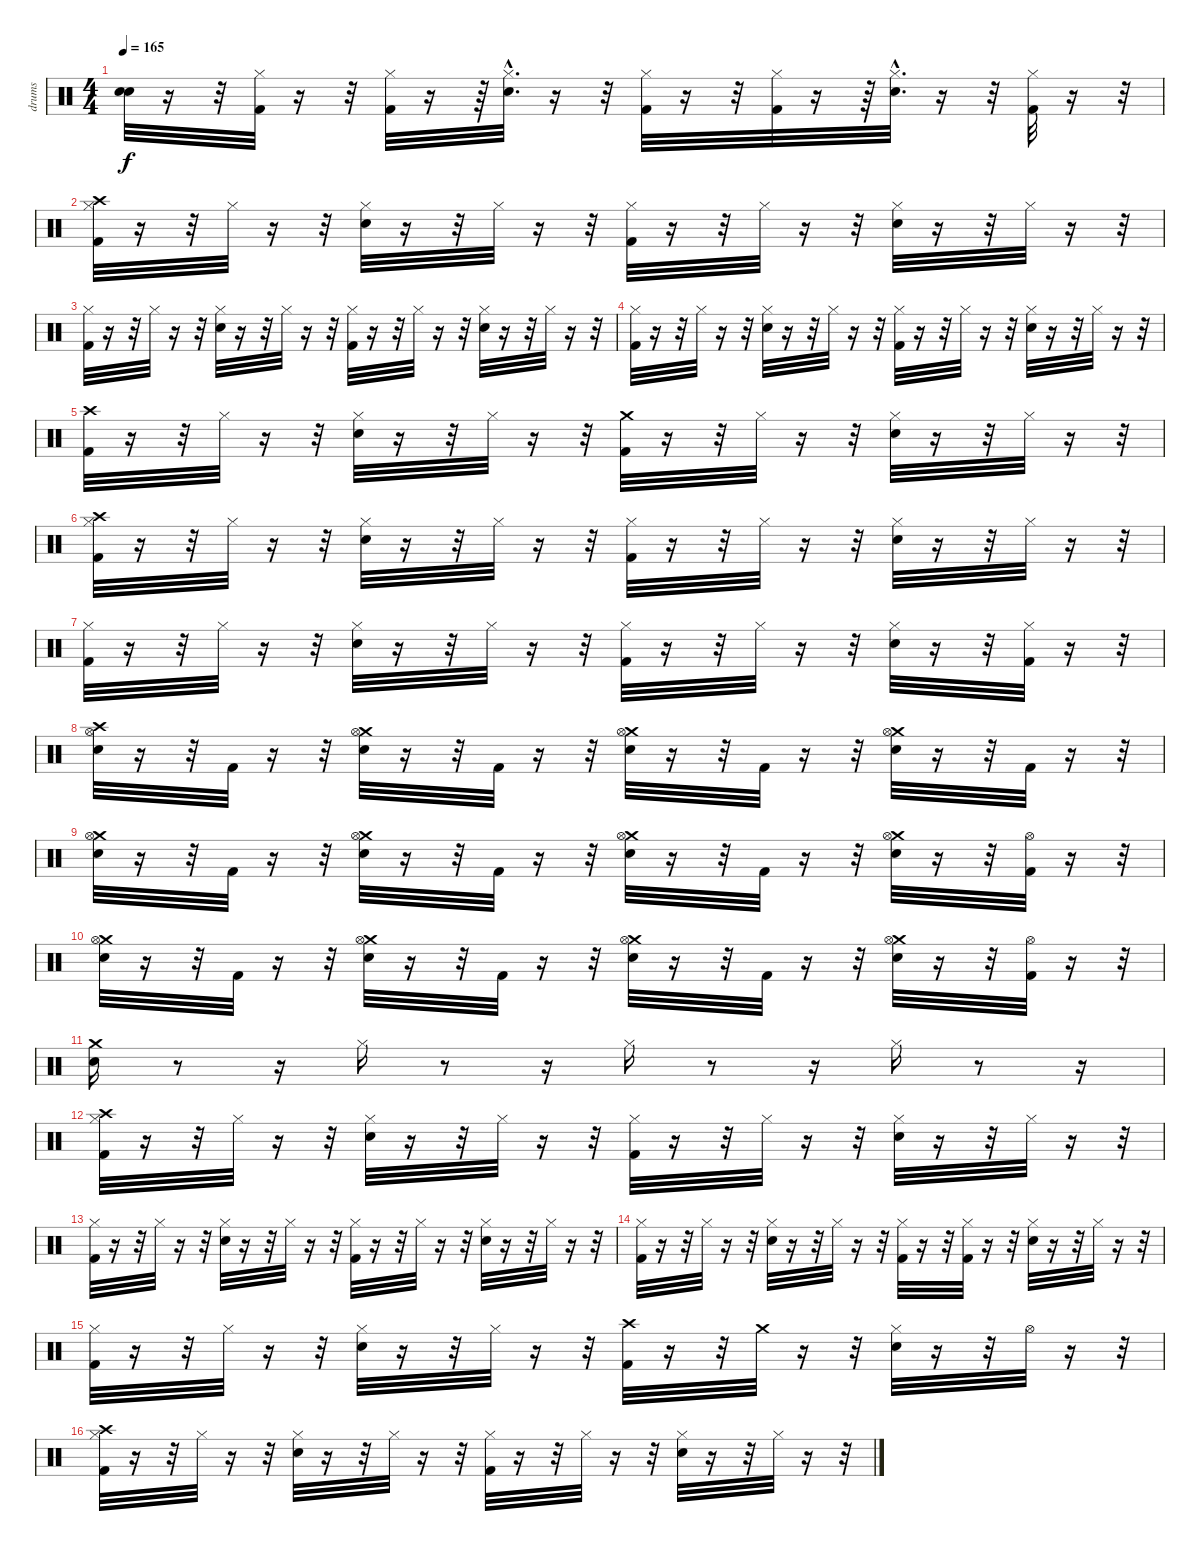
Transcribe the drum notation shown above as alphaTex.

\track ("drums" "drums") {instrument percussion}
\staff {score}
\articulation defaults
\ts (4 4)
\tempo 165
\clef neutral
\ks c
("Snare (hit)"{t} "Snare (hit)"{t}).32{dy f} r.16 r.32 ("Kick (hit) 2" "Hi-Hat (closed)").32 r.16 r.32 ("Hi-Hat (closed)" "Kick (hit) 2").32 r.16 r.64 ("Electric Snare (hit)"{hac} "Hi-Hat (closed)"{hac}).32{d} r.16 r.32 ("Hi-Hat (closed)" "Kick (hit) 2").32 r.16 r.32 ("Hi-Hat (closed)" "Kick (hit) 2").32 r.16 r.64 ("Hi-Hat (closed)"{hac} "Electric Snare (hit)"{hac}).32{d} r.16 r.32 ("Kick (hit) 2" "Hi-Hat (closed)").32 r.16 r.32 |
("Kick (hit) 2" "Hi-Hat (closed)" "Crash high (hit)").32 r.16 r.32 "Hi-Hat (closed)".32 r.16 r.32 ("Hi-Hat (closed)" "Electric Snare (hit)").32 r.16 r.32 "Hi-Hat (closed)".32 r.16 r.32 ("Hi-Hat (closed)" "Kick (hit) 2").32 r.16 r.32 "Hi-Hat (closed)".32 r.16 r.32 ("Hi-Hat (closed)" "Electric Snare (hit)").32 r.16 r.32 "Hi-Hat (closed)".32 r.16 r.32 |
("Hi-Hat (closed)" "Kick (hit) 2").32 r.16 r.32 "Hi-Hat (closed)".32 r.16 r.32 ("Hi-Hat (closed)" "Electric Snare (hit)").32 r.16 r.32 "Hi-Hat (closed)".32 r.16 r.32 ("Hi-Hat (closed)" "Kick (hit) 2").32 r.16 r.32 "Hi-Hat (closed)".32 r.16 r.32 ("Hi-Hat (closed)" "Electric Snare (hit)").32 r.16 r.32 "Hi-Hat (closed)".32 r.16 r.32 |
("Hi-Hat (closed)" "Kick (hit) 2").32 r.16 r.32 "Hi-Hat (closed)".32 r.16 r.32 ("Hi-Hat (closed)" "Electric Snare (hit)").32 r.16 r.32 "Hi-Hat (closed)".32 r.16 r.32 ("Hi-Hat (closed)" "Kick (hit) 2").32 r.16 r.32 "Hi-Hat (closed)".32 r.16 r.32 ("Hi-Hat (closed)" "Electric Snare (hit)").32 r.16 r.32 "Hi-Hat (closed)".32 r.16 r.32 |
("Crash high (hit)" "Kick (hit) 2").32 r.16 r.32 "Hi-Hat (closed)".32 r.16 r.32 ("Hi-Hat (closed)" "Electric Snare (hit)").32 r.16 r.32 "Hi-Hat (closed)".32 r.16 r.32 ("Crash medium (hit)" "Kick (hit) 2").32 r.16 r.32 "Hi-Hat (closed)".32 r.16 r.32 ("Hi-Hat (closed)" "Electric Snare (hit)").32 r.16 r.32 "Hi-Hat (closed)".32 r.16 r.32 |
("Crash high (hit)" "Hi-Hat (closed)" "Kick (hit) 2").32 r.16 r.32 "Hi-Hat (closed)".32 r.16 r.32 ("Hi-Hat (closed)" "Electric Snare (hit)").32 r.16 r.32 "Hi-Hat (closed)".32 r.16 r.32 ("Hi-Hat (closed)" "Kick (hit) 2").32 r.16 r.32 "Hi-Hat (closed)".32 r.16 r.32 ("Hi-Hat (closed)" "Electric Snare (hit)").32 r.16 r.32 "Hi-Hat (closed)".32 r.16 r.32 |
("Hi-Hat (closed)" "Kick (hit) 2").32 r.16 r.32 "Hi-Hat (closed)".32 r.16 r.32 ("Hi-Hat (closed)" "Electric Snare (hit)").32 r.16 r.32 "Hi-Hat (closed)".32 r.16 r.32 ("Hi-Hat (closed)" "Kick (hit) 2").32 r.16 r.32 "Hi-Hat (closed)".32 r.16 r.32 ("Hi-Hat (closed)" "Electric Snare (hit)").32 r.16 r.32 ("Kick (hit) 2" "Hi-Hat (closed)").32 r.16 r.32 |
("Electric Snare (hit)" "Crash high (hit)" "Hi-Hat (open)").32 r.16 r.32 "Kick (hit) 2".32 r.16 r.32 ("Crash medium (hit)" "Hi-Hat (open)" "Electric Snare (hit)").32 r.16 r.32 "Kick (hit) 2".32 r.16 r.32 ("Crash medium (hit)" "Electric Snare (hit)" "Hi-Hat (open)").32 r.16 r.32 "Kick (hit) 2".32 r.16 r.32 ("Electric Snare (hit)" "Crash medium (hit)" "Hi-Hat (open)").32 r.16 r.32 "Kick (hit) 2".32 r.16 r.32 |
("Crash medium (hit)" "Electric Snare (hit)" "Hi-Hat (open)").32 r.16 r.32 "Kick (hit) 2".32 r.16 r.32 ("Crash medium (hit)" "Hi-Hat (open)" "Electric Snare (hit)").32 r.16 r.32 "Kick (hit) 2".32 r.16 r.32 ("Crash medium (hit)" "Electric Snare (hit)" "Hi-Hat (open)").32 r.16 r.32 "Kick (hit) 2".32 r.16 r.32 ("Crash medium (hit)" "Hi-Hat (open)" "Electric Snare (hit)").32 r.16 r.32 ("Kick (hit) 2" "Hi-Hat (open)").32 r.16 r.32 |
("Crash medium (hit)" "Electric Snare (hit)" "Hi-Hat (open)").32 r.16 r.32 "Kick (hit) 2".32 r.16 r.32 ("Crash medium (hit)" "Hi-Hat (open)" "Electric Snare (hit)").32 r.16 r.32 "Kick (hit) 2".32 r.16 r.32 ("Crash medium (hit)" "Electric Snare (hit)" "Hi-Hat (open)").32 r.16 r.32 "Kick (hit) 2".32 r.16 r.32 ("Crash medium (hit)" "Hi-Hat (open)" "Electric Snare (hit)").32 r.16 r.32 ("Kick (hit) 2" "Hi-Hat (open)").32 r.16 r.32 |
("Crash medium (hit)" "Snare (hit) 2").16 r.8 r.16 "Hi-Hat (closed)".16 r.8 r.16 "Hi-Hat (closed)".16 r.8 r.16 "Hi-Hat (closed)".16 r.8 r.16 |
("Kick (hit) 2" "Hi-Hat (closed)" "Crash high (hit)").32 r.16 r.32 "Hi-Hat (closed)".32 r.16 r.32 ("Hi-Hat (closed)" "Electric Snare (hit)").32 r.16 r.32 "Hi-Hat (closed)".32 r.16 r.32 ("Hi-Hat (closed)" "Kick (hit) 2").32 r.16 r.32 "Hi-Hat (closed)".32 r.16 r.32 ("Hi-Hat (closed)" "Electric Snare (hit)").32 r.16 r.32 "Hi-Hat (closed)".32 r.16 r.32 |
("Hi-Hat (closed)" "Kick (hit) 2").32 r.16 r.32 "Hi-Hat (closed)".32 r.16 r.32 ("Hi-Hat (closed)" "Electric Snare (hit)").32 r.16 r.32 "Hi-Hat (closed)".32 r.16 r.32 ("Hi-Hat (closed)" "Kick (hit) 2").32 r.16 r.32 "Hi-Hat (closed)".32 r.16 r.32 ("Hi-Hat (closed)" "Electric Snare (hit)").32 r.16 r.32 "Hi-Hat (closed)".32 r.16 r.32 |
("Hi-Hat (closed)" "Kick (hit) 2").32 r.16 r.32 "Hi-Hat (closed)".32 r.16 r.32 ("Hi-Hat (closed)" "Electric Snare (hit)").32 r.16 r.32 "Hi-Hat (closed)".32 r.16 r.32 ("Hi-Hat (closed)" "Kick (hit) 2").32 r.16 r.32 ("Hi-Hat (closed)" "Kick (hit) 2").32 r.16 r.32 ("Hi-Hat (closed)" "Electric Snare (hit)").32 r.16 r.32 "Hi-Hat (closed)".32 r.16 r.32 |
("Hi-Hat (closed)" "Kick (hit) 2").32 r.16 r.32 "Hi-Hat (closed)".32 r.16 r.32 ("Hi-Hat (closed)" "Electric Snare (hit)").32 r.16 r.32 "Hi-Hat (closed)".32 r.16 r.32 ("Crash high (hit)" "Kick (hit) 2").32 r.16 r.32 "Crash medium (hit)".32 r.16 r.32 ("Hi-Hat (closed)" "Electric Snare (hit)").32 r.16 r.32 "Hi-Hat (open)".32 r.16 r.32 |
("Crash high (hit)" "Hi-Hat (closed)" "Kick (hit) 2").32 r.16 r.32 "Hi-Hat (closed)".32 r.16 r.32 ("Hi-Hat (closed)" "Electric Snare (hit)").32 r.16 r.32 "Hi-Hat (closed)".32 r.16 r.32 ("Hi-Hat (closed)" "Kick (hit) 2").32 r.16 r.32 "Hi-Hat (closed)".32 r.16 r.32 ("Hi-Hat (closed)" "Electric Snare (hit)").32 r.16 r.32 "Hi-Hat (closed)".32 r.16 r.32
